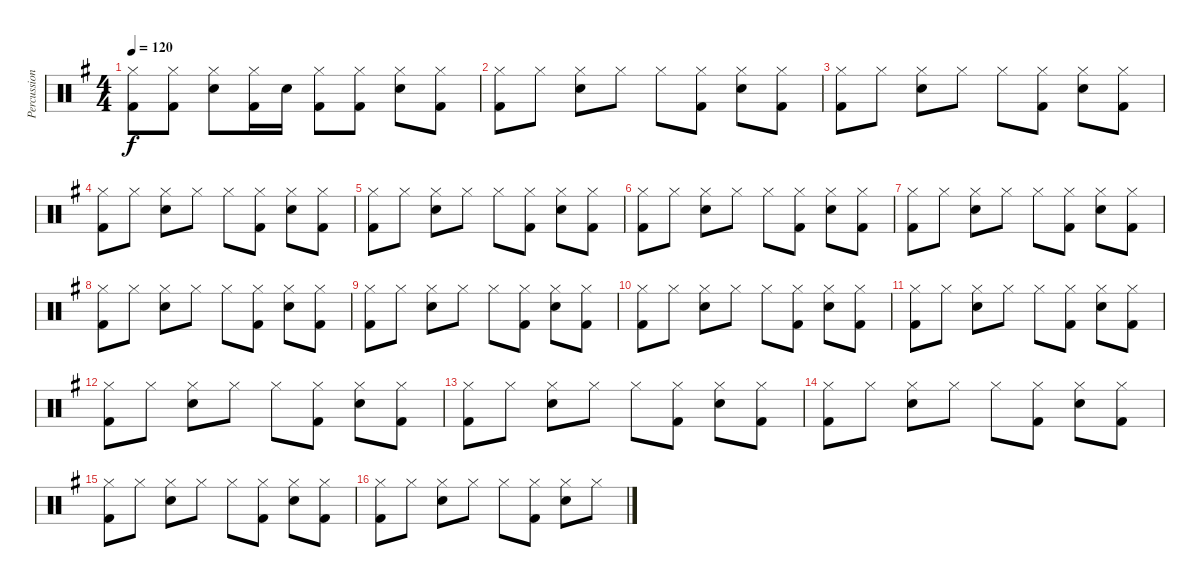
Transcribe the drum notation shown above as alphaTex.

\track ("Percussion" "Percussion") {instrument percussion}
\staff {score}
\articulation defaults
\ts (4 4)
\tempo 120
\clef neutral
\ks g
("Hi-Hat (closed)" "Kick (hit) 2").8{dy f} ("Hi-Hat (closed)" "Kick (hit) 2").8 ("Hi-Hat (closed)" "Snare (hit) 2").8 ("Hi-Hat (closed)" "Kick (hit) 2").16 "Snare (hit) 2".16 ("Hi-Hat (closed)" "Kick (hit) 2").8 ("Hi-Hat (closed)" "Kick (hit) 2").8 ("Hi-Hat (closed)" "Snare (hit) 2").8 ("Hi-Hat (closed)" "Kick (hit) 2").8 |
("Hi-Hat (closed)" "Kick (hit) 2").8 "Hi-Hat (closed)".8 ("Hi-Hat (closed)" "Snare (hit) 2").8 "Hi-Hat (closed)".8 "Hi-Hat (closed)".8 ("Hi-Hat (closed)" "Kick (hit) 2").8 ("Hi-Hat (closed)" "Snare (hit) 2").8 ("Hi-Hat (closed)" "Kick (hit) 2").8 |
("Hi-Hat (closed)" "Kick (hit) 2").8 "Hi-Hat (closed)".8 ("Hi-Hat (closed)" "Snare (hit) 2").8 "Hi-Hat (closed)".8 "Hi-Hat (closed)".8 ("Hi-Hat (closed)" "Kick (hit) 2").8 ("Hi-Hat (closed)" "Snare (hit) 2").8 ("Hi-Hat (closed)" "Kick (hit) 2").8 |
("Hi-Hat (closed)" "Kick (hit) 2").8 "Hi-Hat (closed)".8 ("Hi-Hat (closed)" "Snare (hit) 2").8 "Hi-Hat (closed)".8 "Hi-Hat (closed)".8 ("Hi-Hat (closed)" "Kick (hit) 2").8 ("Hi-Hat (closed)" "Snare (hit) 2").8 ("Hi-Hat (closed)" "Kick (hit) 2").8 |
("Hi-Hat (closed)" "Kick (hit) 2").8 "Hi-Hat (closed)".8 ("Hi-Hat (closed)" "Snare (hit) 2").8 "Hi-Hat (closed)".8 "Hi-Hat (closed)".8 ("Hi-Hat (closed)" "Kick (hit) 2").8 ("Hi-Hat (closed)" "Snare (hit) 2").8 ("Hi-Hat (closed)" "Kick (hit) 2").8 |
("Hi-Hat (closed)" "Kick (hit) 2").8 "Hi-Hat (closed)".8 ("Hi-Hat (closed)" "Snare (hit) 2").8 "Hi-Hat (closed)".8 "Hi-Hat (closed)".8 ("Hi-Hat (closed)" "Kick (hit) 2").8 ("Hi-Hat (closed)" "Snare (hit) 2").8 ("Hi-Hat (closed)" "Kick (hit) 2").8 |
("Hi-Hat (closed)" "Kick (hit) 2").8 "Hi-Hat (closed)".8 ("Hi-Hat (closed)" "Snare (hit) 2").8 "Hi-Hat (closed)".8 "Hi-Hat (closed)".8 ("Hi-Hat (closed)" "Kick (hit) 2").8 ("Hi-Hat (closed)" "Snare (hit) 2").8 ("Hi-Hat (closed)" "Kick (hit) 2").8 |
("Hi-Hat (closed)" "Kick (hit) 2").8 "Hi-Hat (closed)".8 ("Hi-Hat (closed)" "Snare (hit) 2").8 "Hi-Hat (closed)".8 "Hi-Hat (closed)".8 ("Hi-Hat (closed)" "Kick (hit) 2").8 ("Hi-Hat (closed)" "Snare (hit) 2").8 ("Hi-Hat (closed)" "Kick (hit) 2").8 |
("Hi-Hat (closed)" "Kick (hit) 2").8 "Hi-Hat (closed)".8 ("Hi-Hat (closed)" "Snare (hit) 2").8 "Hi-Hat (closed)".8 "Hi-Hat (closed)".8 ("Hi-Hat (closed)" "Kick (hit) 2").8 ("Hi-Hat (closed)" "Snare (hit) 2").8 ("Hi-Hat (closed)" "Kick (hit) 2").8 |
("Hi-Hat (closed)" "Kick (hit) 2").8 "Hi-Hat (closed)".8 ("Hi-Hat (closed)" "Snare (hit) 2").8 "Hi-Hat (closed)".8 "Hi-Hat (closed)".8 ("Hi-Hat (closed)" "Kick (hit) 2").8 ("Hi-Hat (closed)" "Snare (hit) 2").8 ("Hi-Hat (closed)" "Kick (hit) 2").8 |
("Hi-Hat (closed)" "Kick (hit) 2").8 "Hi-Hat (closed)".8 ("Hi-Hat (closed)" "Snare (hit) 2").8 "Hi-Hat (closed)".8 "Hi-Hat (closed)".8 ("Hi-Hat (closed)" "Kick (hit) 2").8 ("Hi-Hat (closed)" "Snare (hit) 2").8 ("Hi-Hat (closed)" "Kick (hit) 2").8 |
("Hi-Hat (closed)" "Kick (hit) 2").8 "Hi-Hat (closed)".8 ("Hi-Hat (closed)" "Snare (hit) 2").8 "Hi-Hat (closed)".8 "Hi-Hat (closed)".8 ("Hi-Hat (closed)" "Kick (hit) 2").8 ("Hi-Hat (closed)" "Snare (hit) 2").8 ("Hi-Hat (closed)" "Kick (hit) 2").8 |
("Hi-Hat (closed)" "Kick (hit) 2").8 "Hi-Hat (closed)".8 ("Hi-Hat (closed)" "Snare (hit) 2").8 "Hi-Hat (closed)".8 "Hi-Hat (closed)".8 ("Hi-Hat (closed)" "Kick (hit) 2").8 ("Hi-Hat (closed)" "Snare (hit) 2").8 ("Hi-Hat (closed)" "Kick (hit) 2").8 |
("Hi-Hat (closed)" "Kick (hit) 2").8 "Hi-Hat (closed)".8 ("Hi-Hat (closed)" "Snare (hit) 2").8 "Hi-Hat (closed)".8 "Hi-Hat (closed)".8 ("Hi-Hat (closed)" "Kick (hit) 2").8 ("Hi-Hat (closed)" "Snare (hit) 2").8 ("Hi-Hat (closed)" "Kick (hit) 2").8 |
("Hi-Hat (closed)" "Kick (hit) 2").8 "Hi-Hat (closed)".8 ("Hi-Hat (closed)" "Snare (hit) 2").8 "Hi-Hat (closed)".8 "Hi-Hat (closed)".8 ("Hi-Hat (closed)" "Kick (hit) 2").8 ("Hi-Hat (closed)" "Snare (hit) 2").8 ("Hi-Hat (closed)" "Kick (hit) 2").8 |
("Hi-Hat (closed)" "Kick (hit) 2").8 "Hi-Hat (closed)".8 ("Hi-Hat (closed)" "Snare (hit) 2").8 "Hi-Hat (closed)".8 "Hi-Hat (closed)".8 ("Hi-Hat (closed)" "Kick (hit) 2").8 ("Hi-Hat (closed)" "Snare (hit) 2").8 "Hi-Hat (closed)".8
